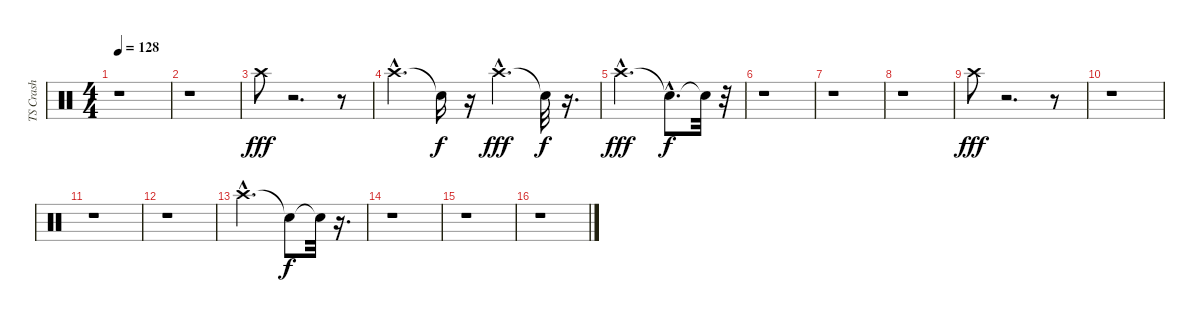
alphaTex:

\track ("TS Crash" "TS Crash") {instrument percussion}
\staff {score}
\articulation defaults
\ts (4 4)
\tempo 128
\clef neutral
\ks c
r.1{dy f} |
r.1 |
"Crash high (hit)".8{dy fff} r.2{d} r.8 |
"Crash high (hit)"{hac}.4{d} "Snare (hit)"{t}.16{dy f} r.16 "Crash high (hit)"{hac}.4{d dy fff} "Snare (hit)"{t}.32{dy f} r.16{d} |
"Crash high (hit)"{hac}.2{d dy fff} "Snare (hit)"{hac t}.8{d dy f} "Snare (hit)"{t}.32 r.32 |
r.1 |
r.1 |
r.1 |
"Crash high (hit)".8{dy fff} r.2{d} r.8 |
r.1 |
r.1 |
r.1 |
"Crash high (hit)"{hac}.2{d} "Snare (hit)"{t}.8{dy f} "Snare (hit)"{t}.32 r.16{d} |
r.1 |
r.1 |
r.1
